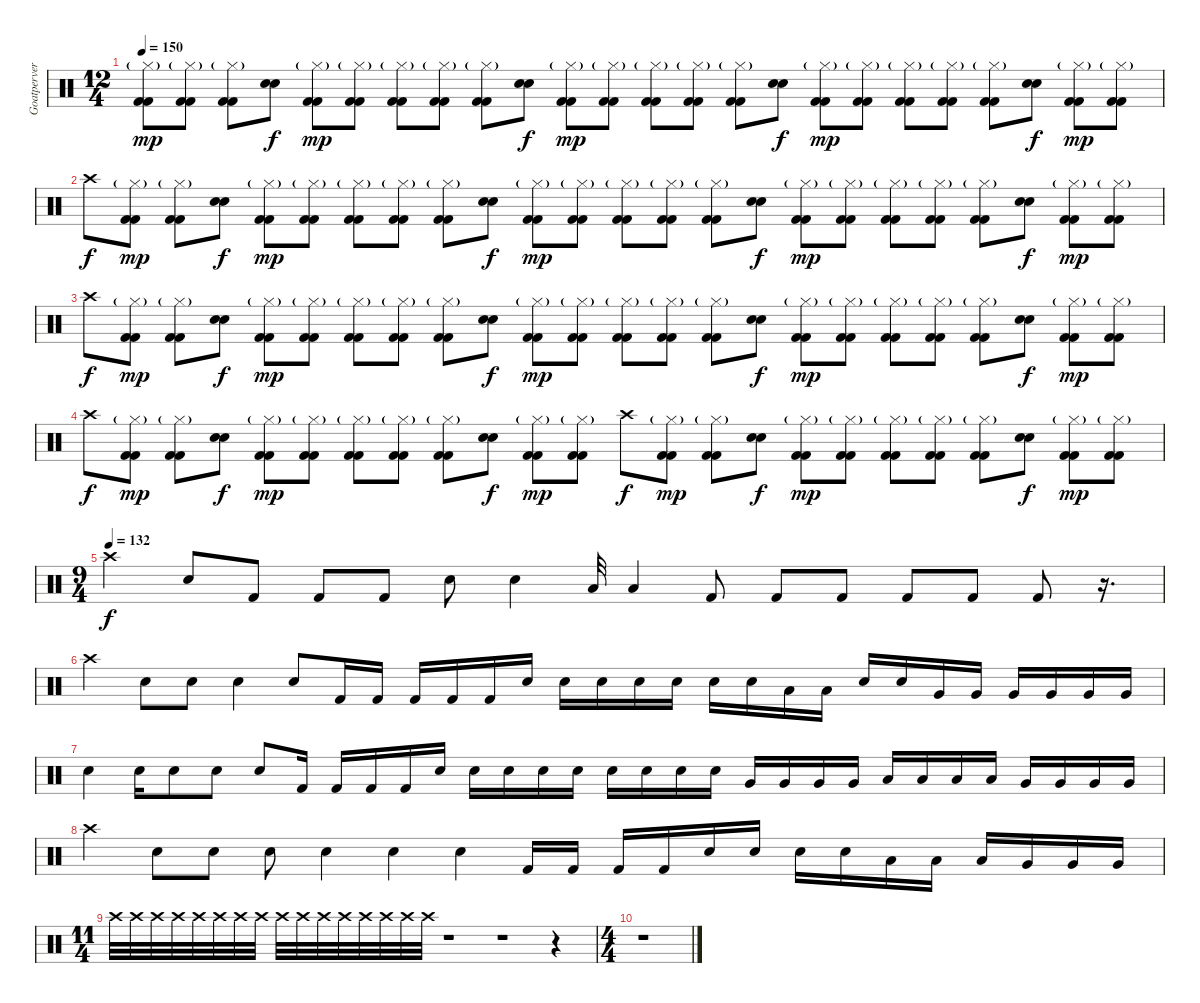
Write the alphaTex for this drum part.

\track ("Goatpervertor " "Goatperver") {instrument percussion}
\staff {score}
\articulation defaults
\ts (12 4)
\tempo 150
\clef neutral
\ks c
("Hi-Hat (closed)"{g} "Kick (hit) 2" "Kick (hit) 2").8{dy mp} ("Hi-Hat (closed)"{g} "Kick (hit) 2" "Kick (hit) 2").8 ("Hi-Hat (closed)"{g} "Kick (hit) 2" "Kick (hit) 2").8 ("Snare (hit) 2" "Snare (hit) 2").8{dy f} ("Hi-Hat (closed)"{g} "Kick (hit) 2" "Kick (hit) 2").8{dy mp} ("Hi-Hat (closed)"{g} "Kick (hit) 2" "Kick (hit) 2").8 ("Hi-Hat (closed)"{g} "Kick (hit) 2" "Kick (hit) 2").8 ("Hi-Hat (closed)"{g} "Kick (hit) 2" "Kick (hit) 2").8 ("Hi-Hat (closed)"{g} "Kick (hit) 2" "Kick (hit) 2").8 ("Snare (hit) 2" "Snare (hit) 2").8{dy f} ("Hi-Hat (closed)"{g} "Kick (hit) 2" "Kick (hit) 2").8{dy mp} ("Hi-Hat (closed)"{g} "Kick (hit) 2" "Kick (hit) 2").8 ("Hi-Hat (closed)"{g} "Kick (hit) 2" "Kick (hit) 2").8 ("Hi-Hat (closed)"{g} "Kick (hit) 2" "Kick (hit) 2").8 ("Hi-Hat (closed)"{g} "Kick (hit) 2" "Kick (hit) 2").8 ("Snare (hit) 2" "Snare (hit) 2").8{dy f} ("Hi-Hat (closed)"{g} "Kick (hit) 2" "Kick (hit) 2").8{dy mp} ("Hi-Hat (closed)"{g} "Kick (hit) 2" "Kick (hit) 2").8 ("Hi-Hat (closed)"{g} "Kick (hit) 2" "Kick (hit) 2").8 ("Hi-Hat (closed)"{g} "Kick (hit) 2" "Kick (hit) 2").8 ("Hi-Hat (closed)"{g} "Kick (hit) 2" "Kick (hit) 2").8 ("Snare (hit) 2" "Snare (hit) 2").8{dy f} ("Hi-Hat (closed)"{g} "Kick (hit) 2" "Kick (hit) 2").8{dy mp} ("Hi-Hat (closed)"{g} "Kick (hit) 2" "Kick (hit) 2").8 |
"Crash high (hit)".8{dy f} ("Hi-Hat (closed)"{g} "Kick (hit) 2" "Kick (hit) 2").8{dy mp} ("Hi-Hat (closed)"{g} "Kick (hit) 2" "Kick (hit) 2").8 ("Snare (hit) 2" "Snare (hit) 2").8{dy f} ("Hi-Hat (closed)"{g} "Kick (hit) 2" "Kick (hit) 2").8{dy mp} ("Hi-Hat (closed)"{g} "Kick (hit) 2" "Kick (hit) 2").8 ("Hi-Hat (closed)"{g} "Kick (hit) 2" "Kick (hit) 2").8 ("Hi-Hat (closed)"{g} "Kick (hit) 2" "Kick (hit) 2").8 ("Hi-Hat (closed)"{g} "Kick (hit) 2" "Kick (hit) 2").8 ("Snare (hit) 2" "Snare (hit) 2").8{dy f} ("Hi-Hat (closed)"{g} "Kick (hit) 2" "Kick (hit) 2").8{dy mp} ("Hi-Hat (closed)"{g} "Kick (hit) 2" "Kick (hit) 2").8 ("Hi-Hat (closed)"{g} "Kick (hit) 2" "Kick (hit) 2").8 ("Hi-Hat (closed)"{g} "Kick (hit) 2" "Kick (hit) 2").8 ("Hi-Hat (closed)"{g} "Kick (hit) 2" "Kick (hit) 2").8 ("Snare (hit) 2" "Snare (hit) 2").8{dy f} ("Hi-Hat (closed)"{g} "Kick (hit) 2" "Kick (hit) 2").8{dy mp} ("Hi-Hat (closed)"{g} "Kick (hit) 2" "Kick (hit) 2").8 ("Hi-Hat (closed)"{g} "Kick (hit) 2" "Kick (hit) 2").8 ("Hi-Hat (closed)"{g} "Kick (hit) 2" "Kick (hit) 2").8 ("Hi-Hat (closed)"{g} "Kick (hit) 2" "Kick (hit) 2").8 ("Snare (hit) 2" "Snare (hit) 2").8{dy f} ("Hi-Hat (closed)"{g} "Kick (hit) 2" "Kick (hit) 2").8{dy mp} ("Hi-Hat (closed)"{g} "Kick (hit) 2" "Kick (hit) 2").8 |
"Crash high (hit)".8{dy f} ("Hi-Hat (closed)"{g} "Kick (hit) 2" "Kick (hit) 2").8{dy mp} ("Hi-Hat (closed)"{g} "Kick (hit) 2" "Kick (hit) 2").8 ("Snare (hit) 2" "Snare (hit) 2").8{dy f} ("Hi-Hat (closed)"{g} "Kick (hit) 2" "Kick (hit) 2").8{dy mp} ("Hi-Hat (closed)"{g} "Kick (hit) 2" "Kick (hit) 2").8 ("Hi-Hat (closed)"{g} "Kick (hit) 2" "Kick (hit) 2").8 ("Hi-Hat (closed)"{g} "Kick (hit) 2" "Kick (hit) 2").8 ("Hi-Hat (closed)"{g} "Kick (hit) 2" "Kick (hit) 2").8 ("Snare (hit) 2" "Snare (hit) 2").8{dy f} ("Hi-Hat (closed)"{g} "Kick (hit) 2" "Kick (hit) 2").8{dy mp} ("Hi-Hat (closed)"{g} "Kick (hit) 2" "Kick (hit) 2").8 ("Hi-Hat (closed)"{g} "Kick (hit) 2" "Kick (hit) 2").8 ("Hi-Hat (closed)"{g} "Kick (hit) 2" "Kick (hit) 2").8 ("Hi-Hat (closed)"{g} "Kick (hit) 2" "Kick (hit) 2").8 ("Snare (hit) 2" "Snare (hit) 2").8{dy f} ("Hi-Hat (closed)"{g} "Kick (hit) 2" "Kick (hit) 2").8{dy mp} ("Hi-Hat (closed)"{g} "Kick (hit) 2" "Kick (hit) 2").8 ("Hi-Hat (closed)"{g} "Kick (hit) 2" "Kick (hit) 2").8 ("Hi-Hat (closed)"{g} "Kick (hit) 2" "Kick (hit) 2").8 ("Hi-Hat (closed)"{g} "Kick (hit) 2" "Kick (hit) 2").8 ("Snare (hit) 2" "Snare (hit) 2").8{dy f} ("Hi-Hat (closed)"{g} "Kick (hit) 2" "Kick (hit) 2").8{dy mp} ("Hi-Hat (closed)"{g} "Kick (hit) 2" "Kick (hit) 2").8 |
"Crash high (hit)".8{dy f} ("Hi-Hat (closed)"{g} "Kick (hit) 2" "Kick (hit) 2").8{dy mp} ("Hi-Hat (closed)"{g} "Kick (hit) 2" "Kick (hit) 2").8 ("Snare (hit) 2" "Snare (hit) 2").8{dy f} ("Hi-Hat (closed)"{g} "Kick (hit) 2" "Kick (hit) 2").8{dy mp} ("Hi-Hat (closed)"{g} "Kick (hit) 2" "Kick (hit) 2").8 ("Hi-Hat (closed)"{g} "Kick (hit) 2" "Kick (hit) 2").8 ("Hi-Hat (closed)"{g} "Kick (hit) 2" "Kick (hit) 2").8 ("Hi-Hat (closed)"{g} "Kick (hit) 2" "Kick (hit) 2").8 ("Snare (hit) 2" "Snare (hit) 2").8{dy f} ("Hi-Hat (closed)"{g} "Kick (hit) 2" "Kick (hit) 2").8{dy mp} ("Hi-Hat (closed)"{g} "Kick (hit) 2" "Kick (hit) 2").8 "Crash high (hit)".8{dy f} ("Hi-Hat (closed)"{g} "Kick (hit) 2" "Kick (hit) 2").8{dy mp} ("Hi-Hat (closed)"{g} "Kick (hit) 2" "Kick (hit) 2").8 ("Snare (hit) 2" "Snare (hit) 2").8{dy f} ("Hi-Hat (closed)"{g} "Kick (hit) 2" "Kick (hit) 2").8{dy mp} ("Hi-Hat (closed)"{g} "Kick (hit) 2" "Kick (hit) 2").8 ("Hi-Hat (closed)"{g} "Kick (hit) 2" "Kick (hit) 2").8 ("Hi-Hat (closed)"{g} "Kick (hit) 2" "Kick (hit) 2").8 ("Hi-Hat (closed)"{g} "Kick (hit) 2" "Kick (hit) 2").8 ("Snare (hit) 2" "Snare (hit) 2").8{dy f} ("Hi-Hat (closed)"{g} "Kick (hit) 2" "Kick (hit) 2").8{dy mp} ("Hi-Hat (closed)"{g} "Kick (hit) 2" "Kick (hit) 2").8 |
\ts (9 4)
\tempo (132)
"Crash high (hit)".4{dy f} "Snare (hit) 2".8 "Kick (hit) 2".8 "Kick (hit) 2".8 "Kick (hit) 2".8 "Snare (hit) 2".8 "Snare (hit) 2".4 "Low Tom (hit)".32 "Low Tom (hit)".4 "Kick (hit) 2".8 "Kick (hit) 2".8 "Kick (hit) 2".8 "Kick (hit) 2".8 "Kick (hit) 2".8 "Kick (hit) 2".8 r.16{d} |
"Crash high (hit)".4 "Snare (hit) 2".8 "Snare (hit) 2".8 "Snare (hit) 2".4 "Snare (hit) 2".8 "Kick (hit) 2".16 "Kick (hit) 2".16 "Kick (hit) 2".16 "Kick (hit) 2".16 "Kick (hit) 2".16 "Snare (hit) 2".16 "Snare (hit) 2".16 "Snare (hit) 2".16 "Snare (hit) 2".16 "Snare (hit) 2".16 "Snare (hit) 2".16 "Snare (hit) 2".16 "Low Floor Tom (hit)".16 "Low Floor Tom (hit)".16 "Snare (hit) 2".16 "Snare (hit) 2".16 "Very Low Tom (hit)".16 "Very Low Tom (hit)".16 "Very Low Tom (hit)".16 "Very Low Tom (hit)".16 "Very Low Tom (hit)".16 "Very Low Tom (hit)".16 |
"Snare (hit) 2".4 "Snare (hit) 2".16 "Snare (hit) 2".8 "Snare (hit) 2".8 "Snare (hit) 2".8 "Kick (hit) 2".16 "Kick (hit) 2".16 "Kick (hit) 2".16 "Kick (hit) 2".16 "Snare (hit) 2".16 "Snare (hit) 2".16 "Snare (hit) 2".16 "Snare (hit) 2".16 "Snare (hit) 2".16 "Snare (hit) 2".16 "Snare (hit) 2".16 "Snare (hit) 2".16 "Snare (hit) 2".16 "Very Low Tom (hit)".16 "Very Low Tom (hit)".16 "Very Low Tom (hit)".16 "Very Low Tom (hit)".16 "Low Floor Tom (hit)".16 "Low Floor Tom (hit)".16 "Low Floor Tom (hit)".16 "Low Floor Tom (hit)".16 "Very Low Tom (hit)".16 "Very Low Tom (hit)".16 "Very Low Tom (hit)".16 "Very Low Tom (hit)".16 |
"Crash high (hit)".4 "Snare (hit) 2".8 "Snare (hit) 2".8 "Snare (hit) 2".8 "Snare (hit) 2".4 "Snare (hit) 2".4 "Snare (hit) 2".4 "Kick (hit) 2".16 "Kick (hit) 2".16 "Kick (hit) 2".16 "Kick (hit) 2".16 "Snare (hit) 2".16 "Snare (hit) 2".16 "Snare (hit) 2".16 "Snare (hit) 2".16 "Low Floor Tom (hit)".16 "Low Floor Tom (hit)".16 "Low Floor Tom (hit)".16 "Very Low Tom (hit)".16 "Very Low Tom (hit)".16 "Very Low Tom (hit)".16 |
\ts (11 4)
"Crash high (hit)".32 "Crash high (hit)".32 "Crash high (hit)".32 "Crash high (hit)".32 "Crash high (hit)".32 "Crash high (hit)".32 "Crash high (hit)".32 "Crash high (hit)".32 "Crash high (hit)".32 "Crash high (hit)".32 "Crash high (hit)".32 "Crash high (hit)".32 "Crash high (hit)".32 "Crash high (hit)".32 "Crash high (hit)".32 "Crash high (hit)".32 r.1 r.1 r.4 |
\ts (4 4)
r.1
